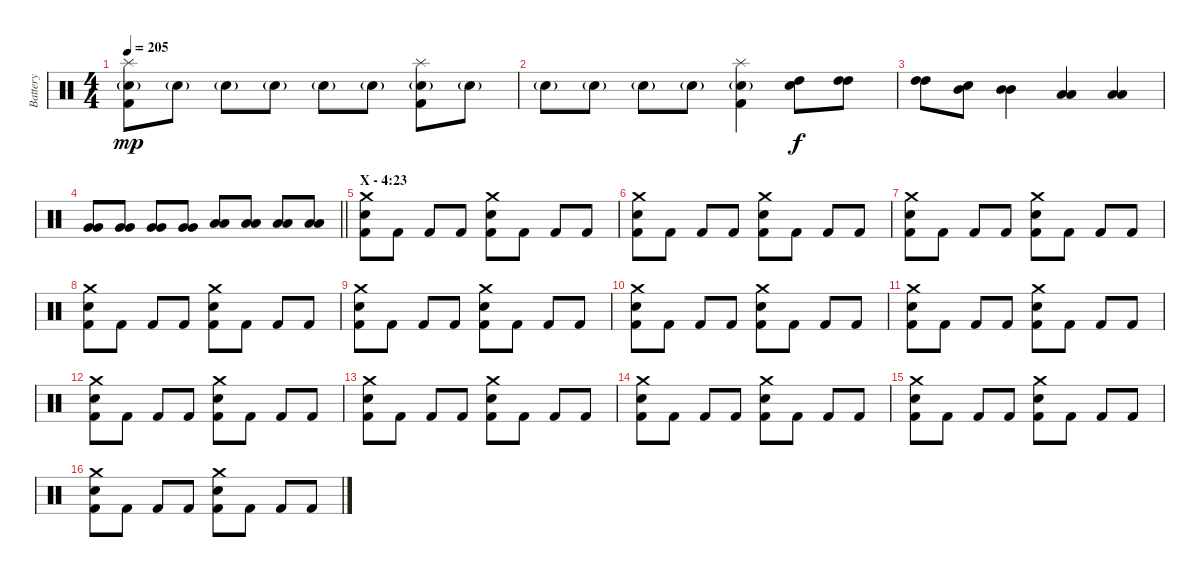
\track ("Battery" "Battery") {instrument percussion}
\staff {score}
\articulation defaults
\ts (4 4)
\tempo 205
\clef neutral
\ks c
("Splash (hit)" "Electric Snare (hit)"{g} "Kick (hit) 2").8{dy mp} "Electric Snare (hit)"{g}.8 "Electric Snare (hit)"{g}.8 "Electric Snare (hit)"{g}.8 "Electric Snare (hit)"{g}.8 "Electric Snare (hit)"{g}.8 ("Splash (hit)" "Electric Snare (hit)"{g} "Kick (hit) 2").8 "Electric Snare (hit)"{g}.8 |
"Electric Snare (hit)"{g}.8 "Electric Snare (hit)"{g}.8 "Electric Snare (hit)"{g}.8 "Electric Snare (hit)"{g}.8 ("Splash (hit)" "Electric Snare (hit)"{g} "Kick (hit) 2").4 ("High Tom (hit)" "Electric Snare (hit)").8{dy f} ("High Tom (hit)" "High Tom (hit)").8 |
("High Tom (hit)" "High Tom (hit)").8 ("Mid Tom (hit)" "Electric Snare (hit)").8 ("Mid Tom (hit)" "Mid Tom (hit)").4 ("Low Tom (hit)" "Low Tom (hit)").4 ("Low Tom (hit)" "Low Tom (hit)").4 |
\barLineRight lightlight
("Very Low Tom (hit)" "Very Low Tom (hit)").8 ("Very Low Tom (hit)" "Very Low Tom (hit)").8 ("Very Low Tom (hit)" "Very Low Tom (hit)").8 ("Very Low Tom (hit)" "Very Low Tom (hit)").8 ("Low Floor Tom (hit)" "Low Floor Tom (hit)").8 ("Low Floor Tom (hit)" "Low Floor Tom (hit)").8 ("Low Floor Tom (hit)" "Low Floor Tom (hit)").8 ("Low Floor Tom (hit)" "Low Floor Tom (hit)").8 |
\section ("" "X - 4:23")
("Crash medium (hit)" "Electric Snare (hit)" "Kick (hit) 2").8 "Kick (hit) 2".8 "Kick (hit) 2".8 "Kick (hit) 2".8 ("Crash medium (hit)" "Electric Snare (hit)" "Kick (hit) 2").8 "Kick (hit) 2".8 "Kick (hit) 2".8 "Kick (hit) 2".8 |
("Crash medium (hit)" "Electric Snare (hit)" "Kick (hit) 2").8 "Kick (hit) 2".8 "Kick (hit) 2".8 "Kick (hit) 2".8 ("Crash medium (hit)" "Electric Snare (hit)" "Kick (hit) 2").8 "Kick (hit) 2".8 "Kick (hit) 2".8 "Kick (hit) 2".8 |
("Crash medium (hit)" "Electric Snare (hit)" "Kick (hit) 2").8 "Kick (hit) 2".8 "Kick (hit) 2".8 "Kick (hit) 2".8 ("Crash medium (hit)" "Electric Snare (hit)" "Kick (hit) 2").8 "Kick (hit) 2".8 "Kick (hit) 2".8 "Kick (hit) 2".8 |
("Crash medium (hit)" "Electric Snare (hit)" "Kick (hit) 2").8 "Kick (hit) 2".8 "Kick (hit) 2".8 "Kick (hit) 2".8 ("Crash medium (hit)" "Electric Snare (hit)" "Kick (hit) 2").8 "Kick (hit) 2".8 "Kick (hit) 2".8 "Kick (hit) 2".8 |
("Crash medium (hit)" "Electric Snare (hit)" "Kick (hit) 2").8 "Kick (hit) 2".8 "Kick (hit) 2".8 "Kick (hit) 2".8 ("Crash medium (hit)" "Electric Snare (hit)" "Kick (hit) 2").8 "Kick (hit) 2".8 "Kick (hit) 2".8 "Kick (hit) 2".8 |
("Crash medium (hit)" "Electric Snare (hit)" "Kick (hit) 2").8 "Kick (hit) 2".8 "Kick (hit) 2".8 "Kick (hit) 2".8 ("Crash medium (hit)" "Electric Snare (hit)" "Kick (hit) 2").8 "Kick (hit) 2".8 "Kick (hit) 2".8 "Kick (hit) 2".8 |
("Crash medium (hit)" "Electric Snare (hit)" "Kick (hit) 2").8 "Kick (hit) 2".8 "Kick (hit) 2".8 "Kick (hit) 2".8 ("Crash medium (hit)" "Electric Snare (hit)" "Kick (hit) 2").8 "Kick (hit) 2".8 "Kick (hit) 2".8 "Kick (hit) 2".8 |
("Crash medium (hit)" "Electric Snare (hit)" "Kick (hit) 2").8 "Kick (hit) 2".8 "Kick (hit) 2".8 "Kick (hit) 2".8 ("Crash medium (hit)" "Electric Snare (hit)" "Kick (hit) 2").8 "Kick (hit) 2".8 "Kick (hit) 2".8 "Kick (hit) 2".8 |
("Crash medium (hit)" "Electric Snare (hit)" "Kick (hit) 2").8 "Kick (hit) 2".8 "Kick (hit) 2".8 "Kick (hit) 2".8 ("Crash medium (hit)" "Electric Snare (hit)" "Kick (hit) 2").8 "Kick (hit) 2".8 "Kick (hit) 2".8 "Kick (hit) 2".8 |
("Crash medium (hit)" "Electric Snare (hit)" "Kick (hit) 2").8 "Kick (hit) 2".8 "Kick (hit) 2".8 "Kick (hit) 2".8 ("Crash medium (hit)" "Electric Snare (hit)" "Kick (hit) 2").8 "Kick (hit) 2".8 "Kick (hit) 2".8 "Kick (hit) 2".8 |
("Crash medium (hit)" "Electric Snare (hit)" "Kick (hit) 2").8 "Kick (hit) 2".8 "Kick (hit) 2".8 "Kick (hit) 2".8 ("Crash medium (hit)" "Electric Snare (hit)" "Kick (hit) 2").8 "Kick (hit) 2".8 "Kick (hit) 2".8 "Kick (hit) 2".8 |
("Crash medium (hit)" "Electric Snare (hit)" "Kick (hit) 2").8 "Kick (hit) 2".8 "Kick (hit) 2".8 "Kick (hit) 2".8 ("Crash medium (hit)" "Electric Snare (hit)" "Kick (hit) 2").8 "Kick (hit) 2".8 "Kick (hit) 2".8 "Kick (hit) 2".8
